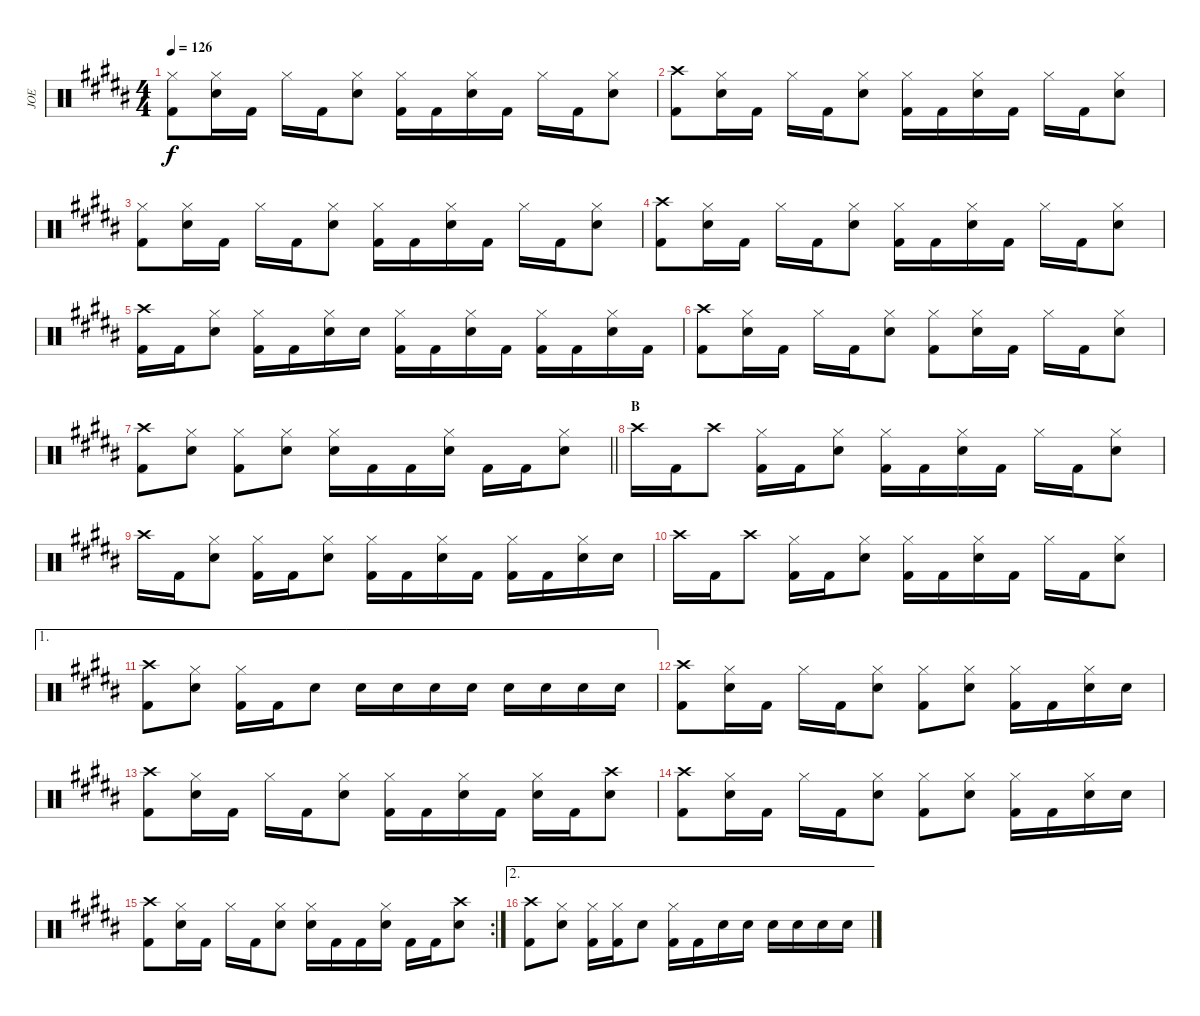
\track ("JOE" "JOE") {instrument percussion}
\staff {score}
\articulation defaults
\ts (4 4)
\tempo 126
\clef neutral
\ks b
("Hi-Hat (closed)" "Kick (hit) 2").8{dy f} ("Hi-Hat (closed)" "Snare (hit) 2").16 "Kick (hit) 2".16 "Hi-Hat (closed)".16 "Kick (hit) 2".16 ("Hi-Hat (closed)" "Snare (hit) 2").8 ("Hi-Hat (closed)" "Kick (hit) 2").16 "Kick (hit) 2".16 ("Hi-Hat (closed)" "Snare (hit) 2").16 "Kick (hit) 2".16 "Hi-Hat (closed)".16 "Kick (hit) 2".16 ("Hi-Hat (closed)" "Snare (hit) 2").8 |
("Crash high (hit)" "Kick (hit) 2").8 ("Hi-Hat (closed)" "Snare (hit) 2").16 "Kick (hit) 2".16 "Hi-Hat (closed)".16 "Kick (hit) 2".16 ("Hi-Hat (closed)" "Snare (hit) 2").8 ("Hi-Hat (closed)" "Kick (hit) 2").16 "Kick (hit) 2".16 ("Hi-Hat (closed)" "Snare (hit) 2").16 "Kick (hit) 2".16 "Hi-Hat (closed)".16 "Kick (hit) 2".16 ("Hi-Hat (closed)" "Snare (hit) 2").8 |
("Hi-Hat (closed)" "Kick (hit) 2").8 ("Hi-Hat (closed)" "Snare (hit) 2").16 "Kick (hit) 2".16 "Hi-Hat (closed)".16 "Kick (hit) 2".16 ("Hi-Hat (closed)" "Snare (hit) 2").8 ("Hi-Hat (closed)" "Kick (hit) 2").16 "Kick (hit) 2".16 ("Hi-Hat (closed)" "Snare (hit) 2").16 "Kick (hit) 2".16 "Hi-Hat (closed)".16 "Kick (hit) 2".16 ("Hi-Hat (closed)" "Snare (hit) 2").8 |
("Crash high (hit)" "Kick (hit) 2").8 ("Hi-Hat (closed)" "Snare (hit) 2").16 "Kick (hit) 2".16 "Hi-Hat (closed)".16 "Kick (hit) 2".16 ("Hi-Hat (closed)" "Snare (hit) 2").8 ("Hi-Hat (closed)" "Kick (hit) 2").16 "Kick (hit) 2".16 ("Hi-Hat (closed)" "Snare (hit) 2").16 "Kick (hit) 2".16 "Hi-Hat (closed)".16 "Kick (hit) 2".16 ("Hi-Hat (closed)" "Snare (hit) 2").8 |
("Crash high (hit)" "Kick (hit) 2").16 "Kick (hit) 2".16 ("Hi-Hat (closed)" "Snare (hit) 2").8 ("Hi-Hat (closed)" "Kick (hit) 2").16 "Kick (hit) 2".16 ("Hi-Hat (closed)" "Snare (hit) 2").16 "Snare (hit) 2".16 ("Hi-Hat (closed)" "Kick (hit) 2").16 "Kick (hit) 2".16 ("Hi-Hat (closed)" "Snare (hit) 2").16 "Kick (hit) 2".16 ("Hi-Hat (closed)" "Kick (hit) 2").16 "Kick (hit) 2".16 ("Hi-Hat (closed)" "Snare (hit) 2").16 "Kick (hit) 2".16 |
("Crash high (hit)" "Kick (hit) 2").8 ("Hi-Hat (closed)" "Snare (hit) 2").16 "Kick (hit) 2".16 "Hi-Hat (closed)".16 "Kick (hit) 2".16 ("Hi-Hat (closed)" "Snare (hit) 2").8 ("Hi-Hat (closed)" "Kick (hit) 2").8 ("Hi-Hat (closed)" "Snare (hit) 2").16 "Kick (hit) 2".16 "Hi-Hat (closed)".16 "Kick (hit) 2".16 ("Hi-Hat (closed)" "Snare (hit) 2").8 |
\barLineRight lightlight
("Crash high (hit)" "Kick (hit) 2").8 ("Hi-Hat (closed)" "Snare (hit) 2").8 ("Hi-Hat (closed)" "Kick (hit) 2").8 ("Hi-Hat (closed)" "Snare (hit) 2").8 ("Hi-Hat (closed)" "Snare (hit) 2").16 "Kick (hit) 2".16 "Kick (hit) 2".16 ("Hi-Hat (closed)" "Snare (hit) 2").16 "Kick (hit) 2".16 "Kick (hit) 2".16 ("Hi-Hat (closed)" "Snare (hit) 2").8 |
\section ("" "B")
"Crash high (hit)".16 "Kick (hit) 2".16 "Crash high (hit)".8 ("Hi-Hat (closed)" "Kick (hit) 2").16 "Kick (hit) 2".16 ("Hi-Hat (closed)" "Snare (hit) 2").8 ("Hi-Hat (closed)" "Kick (hit) 2").16 "Kick (hit) 2".16 ("Hi-Hat (closed)" "Snare (hit) 2").16 "Kick (hit) 2".16 "Hi-Hat (closed)".16 "Kick (hit) 2".16 ("Hi-Hat (closed)" "Snare (hit) 2").8 |
"Crash high (hit)".16 "Kick (hit) 2".16 ("Hi-Hat (closed)" "Snare (hit) 2").8 ("Hi-Hat (closed)" "Kick (hit) 2").16 "Kick (hit) 2".16 ("Hi-Hat (closed)" "Snare (hit) 2").8 ("Hi-Hat (closed)" "Kick (hit) 2").16 "Kick (hit) 2".16 ("Hi-Hat (closed)" "Snare (hit) 2").16 "Kick (hit) 2".16 ("Hi-Hat (closed)" "Kick (hit) 2").16 "Kick (hit) 2".16 ("Hi-Hat (closed)" "Snare (hit) 2").16 "Snare (hit) 2".16 |
"Crash high (hit)".16 "Kick (hit) 2".16 "Crash high (hit)".8 ("Hi-Hat (closed)" "Kick (hit) 2").16 "Kick (hit) 2".16 ("Hi-Hat (closed)" "Snare (hit) 2").8 ("Hi-Hat (closed)" "Kick (hit) 2").16 "Kick (hit) 2".16 ("Hi-Hat (closed)" "Snare (hit) 2").16 "Kick (hit) 2".16 "Hi-Hat (closed)".16 "Kick (hit) 2".16 ("Hi-Hat (closed)" "Snare (hit) 2").8 |
\ae 1
("Crash high (hit)" "Kick (hit) 2").8 ("Hi-Hat (closed)" "Snare (hit) 2").8 ("Hi-Hat (closed)" "Kick (hit) 2").16 "Kick (hit) 2".16 "Snare (hit) 2".8 "Snare (hit) 2".16 "Snare (hit) 2".16 "Snare (hit) 2".16 "Snare (hit) 2".16 "Snare (hit) 2".16 "Snare (hit) 2".16 "Snare (hit) 2".16 "Snare (hit) 2".16 |
("Crash high (hit)" "Kick (hit) 2").8 ("Hi-Hat (closed)" "Snare (hit) 2").16 "Kick (hit) 2".16 "Hi-Hat (closed)".16 "Kick (hit) 2".16 ("Hi-Hat (closed)" "Snare (hit) 2").8 ("Hi-Hat (closed)" "Kick (hit) 2").8 ("Hi-Hat (closed)" "Snare (hit) 2").8 ("Hi-Hat (closed)" "Kick (hit) 2").16 "Kick (hit) 2".16 ("Hi-Hat (closed)" "Snare (hit) 2").16 "Snare (hit) 2".16 |
("Crash high (hit)" "Kick (hit) 2").8 ("Hi-Hat (closed)" "Snare (hit) 2").16 "Kick (hit) 2".16 "Hi-Hat (closed)".16 "Kick (hit) 2".16 ("Hi-Hat (closed)" "Snare (hit) 2").8 ("Hi-Hat (closed)" "Kick (hit) 2").16 "Kick (hit) 2".16 ("Hi-Hat (closed)" "Snare (hit) 2").16 "Kick (hit) 2".16 ("Hi-Hat (closed)" "Snare (hit) 2").16 "Kick (hit) 2".16 ("Crash high (hit)" "Snare (hit) 2").8 |
("Crash high (hit)" "Kick (hit) 2").8 ("Hi-Hat (closed)" "Snare (hit) 2").16 "Kick (hit) 2".16 "Hi-Hat (closed)".16 "Kick (hit) 2".16 ("Hi-Hat (closed)" "Snare (hit) 2").8 ("Hi-Hat (closed)" "Kick (hit) 2").8 ("Hi-Hat (closed)" "Snare (hit) 2").8 ("Hi-Hat (closed)" "Kick (hit) 2").16 "Kick (hit) 2".16 ("Hi-Hat (closed)" "Snare (hit) 2").16 "Snare (hit) 2".16 |
\rc 2
("Crash high (hit)" "Kick (hit) 2").8 ("Hi-Hat (closed)" "Snare (hit) 2").16 "Kick (hit) 2".16 "Hi-Hat (closed)".16 "Kick (hit) 2".16 ("Hi-Hat (closed)" "Snare (hit) 2").8 ("Hi-Hat (closed)" "Snare (hit) 2").16 "Kick (hit) 2".16 "Kick (hit) 2".16 ("Hi-Hat (closed)" "Snare (hit) 2").16 "Kick (hit) 2".16 "Kick (hit) 2".16 ("Crash high (hit)" "Snare (hit) 2").8 |
\ae 2
("Crash high (hit)" "Kick (hit) 2").8 ("Hi-Hat (closed)" "Snare (hit) 2").8 ("Hi-Hat (closed)" "Kick (hit) 2").16 ("Hi-Hat (closed)" "Kick (hit) 2").16 "Snare (hit) 2".8 ("Hi-Hat (closed)" "Kick (hit) 2").16 "Kick (hit) 2".16 "Snare (hit) 2".16 "Snare (hit) 2".16 "Snare (hit) 2".16 "Snare (hit) 2".16 "Snare (hit) 2".16 "Snare (hit) 2".16
